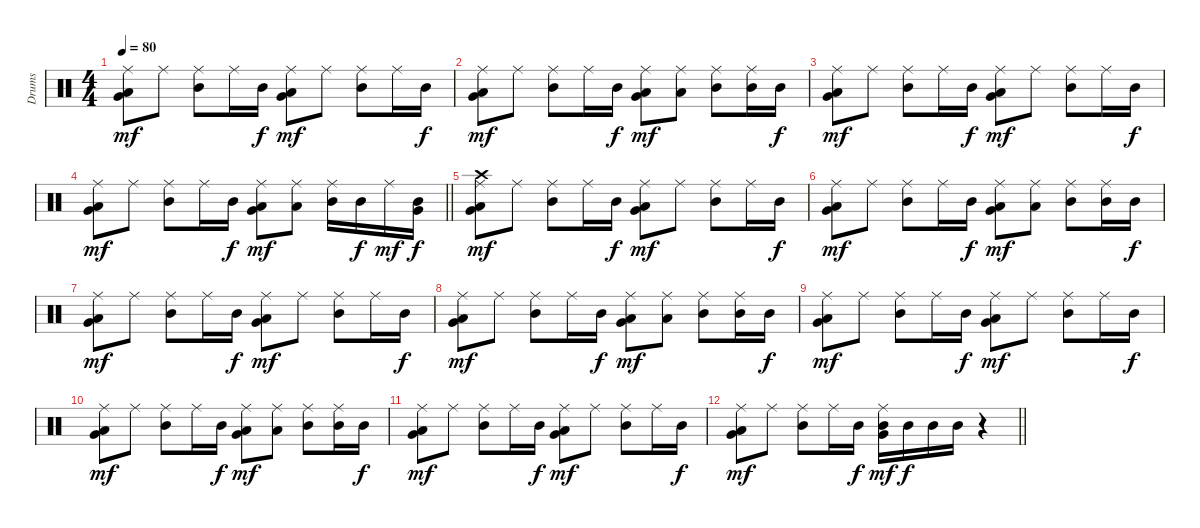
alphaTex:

\track ("Drums" "Drums") {instrument percussion}
\staff {score}
\articulation defaults
\ts (4 4)
\tempo 80
\clef neutral
\ks c
("Ride (middle)" "Low Tom (hit)" "Very Low Tom (hit)").8{dy mf} "Ride (middle)".8 ("Ride (middle)" "Mid Tom (hit)").8 "Ride (middle)".16 "Mid Tom (hit)".16{dy f} ("Ride (middle)" "Low Tom (hit)" "Very Low Tom (hit)").8{dy mf} "Ride (middle)".8 ("Ride (middle)" "Mid Tom (hit)").8 "Ride (middle)".16 "Mid Tom (hit)".16{dy f} |
("Ride (middle)" "Low Tom (hit)" "Very Low Tom (hit)").8{dy mf} "Ride (middle)".8 ("Ride (middle)" "Mid Tom (hit)").8 "Ride (middle)".16 "Mid Tom (hit)".16{dy f} ("Ride (middle)" "Low Tom (hit)" "Very Low Tom (hit)").8{dy mf} ("Ride (middle)" "Low Tom (hit)").8 ("Ride (middle)" "Mid Tom (hit)").8 ("Ride (middle)" "Mid Tom (hit)").16 "Mid Tom (hit)".16{dy f} |
("Ride (middle)" "Low Tom (hit)" "Very Low Tom (hit)").8{dy mf} "Ride (middle)".8 ("Ride (middle)" "Mid Tom (hit)").8 "Ride (middle)".16 "Mid Tom (hit)".16{dy f} ("Ride (middle)" "Low Tom (hit)" "Very Low Tom (hit)").8{dy mf} "Ride (middle)".8 ("Ride (middle)" "Mid Tom (hit)").8 "Ride (middle)".16 "Mid Tom (hit)".16{dy f} |
\barLineRight lightlight
("Ride (middle)" "Low Tom (hit)" "Very Low Tom (hit)").8{dy mf} "Ride (middle)".8 ("Ride (middle)" "Mid Tom (hit)").8 "Ride (middle)".16 "Mid Tom (hit)".16{dy f} ("Ride (middle)" "Low Tom (hit)" "Very Low Tom (hit)").8{dy mf} ("Ride (middle)" "Low Tom (hit)").8 ("Ride (middle)" "Mid Tom (hit)").16 "Mid Tom (hit)".16{dy f} "Ride (middle)".16{dy mf} ("Mid Tom (hit)" "Very Low Tom (hit)").16{dy f} |
("Ride (middle)" "Crash high (hit)" "Low Tom (hit)" "Very Low Tom (hit)").8{dy mf} "Ride (middle)".8 ("Ride (middle)" "Mid Tom (hit)").8 "Ride (middle)".16 "Mid Tom (hit)".16{dy f} ("Ride (middle)" "Low Tom (hit)" "Very Low Tom (hit)").8{dy mf} "Ride (middle)".8 ("Ride (middle)" "Mid Tom (hit)").8 "Ride (middle)".16 "Mid Tom (hit)".16{dy f} |
("Ride (middle)" "Low Tom (hit)" "Very Low Tom (hit)").8{dy mf} "Ride (middle)".8 ("Ride (middle)" "Mid Tom (hit)").8 "Ride (middle)".16 "Mid Tom (hit)".16{dy f} ("Ride (middle)" "Low Tom (hit)" "Very Low Tom (hit)").8{dy mf} ("Ride (middle)" "Low Tom (hit)").8 ("Ride (middle)" "Mid Tom (hit)").8 ("Ride (middle)" "Mid Tom (hit)").16 "Mid Tom (hit)".16{dy f} |
("Ride (middle)" "Low Tom (hit)" "Very Low Tom (hit)").8{dy mf} "Ride (middle)".8 ("Ride (middle)" "Mid Tom (hit)").8 "Ride (middle)".16 "Mid Tom (hit)".16{dy f} ("Ride (middle)" "Low Tom (hit)" "Very Low Tom (hit)").8{dy mf} "Ride (middle)".8 ("Ride (middle)" "Mid Tom (hit)").8 "Ride (middle)".16 "Mid Tom (hit)".16{dy f} |
("Ride (middle)" "Low Tom (hit)" "Very Low Tom (hit)").8{dy mf} "Ride (middle)".8 ("Ride (middle)" "Mid Tom (hit)").8 "Ride (middle)".16 "Mid Tom (hit)".16{dy f} ("Ride (middle)" "Low Tom (hit)" "Very Low Tom (hit)").8{dy mf} ("Ride (middle)" "Low Tom (hit)").8 ("Ride (middle)" "Mid Tom (hit)").8 ("Ride (middle)" "Mid Tom (hit)").16 "Mid Tom (hit)".16{dy f} |
("Ride (middle)" "Low Tom (hit)" "Very Low Tom (hit)").8{dy mf} "Ride (middle)".8 ("Ride (middle)" "Mid Tom (hit)").8 "Ride (middle)".16 "Mid Tom (hit)".16{dy f} ("Ride (middle)" "Low Tom (hit)" "Very Low Tom (hit)").8{dy mf} "Ride (middle)".8 ("Ride (middle)" "Mid Tom (hit)").8 "Ride (middle)".16 "Mid Tom (hit)".16{dy f} |
("Ride (middle)" "Low Tom (hit)" "Very Low Tom (hit)").8{dy mf} "Ride (middle)".8 ("Ride (middle)" "Mid Tom (hit)").8 "Ride (middle)".16 "Mid Tom (hit)".16{dy f} ("Ride (middle)" "Low Tom (hit)" "Very Low Tom (hit)").8{dy mf} ("Ride (middle)" "Low Tom (hit)").8 ("Ride (middle)" "Mid Tom (hit)").8 ("Ride (middle)" "Mid Tom (hit)").16 "Mid Tom (hit)".16{dy f} |
("Ride (middle)" "Low Tom (hit)" "Very Low Tom (hit)").8{dy mf} "Ride (middle)".8 ("Ride (middle)" "Mid Tom (hit)").8 "Ride (middle)".16 "Mid Tom (hit)".16{dy f} ("Ride (middle)" "Low Tom (hit)" "Very Low Tom (hit)").8{dy mf} "Ride (middle)".8 ("Ride (middle)" "Mid Tom (hit)").8 "Ride (middle)".16 "Mid Tom (hit)".16{dy f} |
\barLineRight lightlight
("Ride (middle)" "Low Tom (hit)" "Very Low Tom (hit)").8{dy mf} "Ride (middle)".8 ("Ride (middle)" "Mid Tom (hit)").8 "Ride (middle)".16 "Mid Tom (hit)".16{dy f} ("Ride (middle)" "Mid Tom (hit)" "Very Low Tom (hit)").16{dy mf} "Mid Tom (hit)".16{dy f} "Mid Tom (hit)".16 "Mid Tom (hit)".16 r.4
